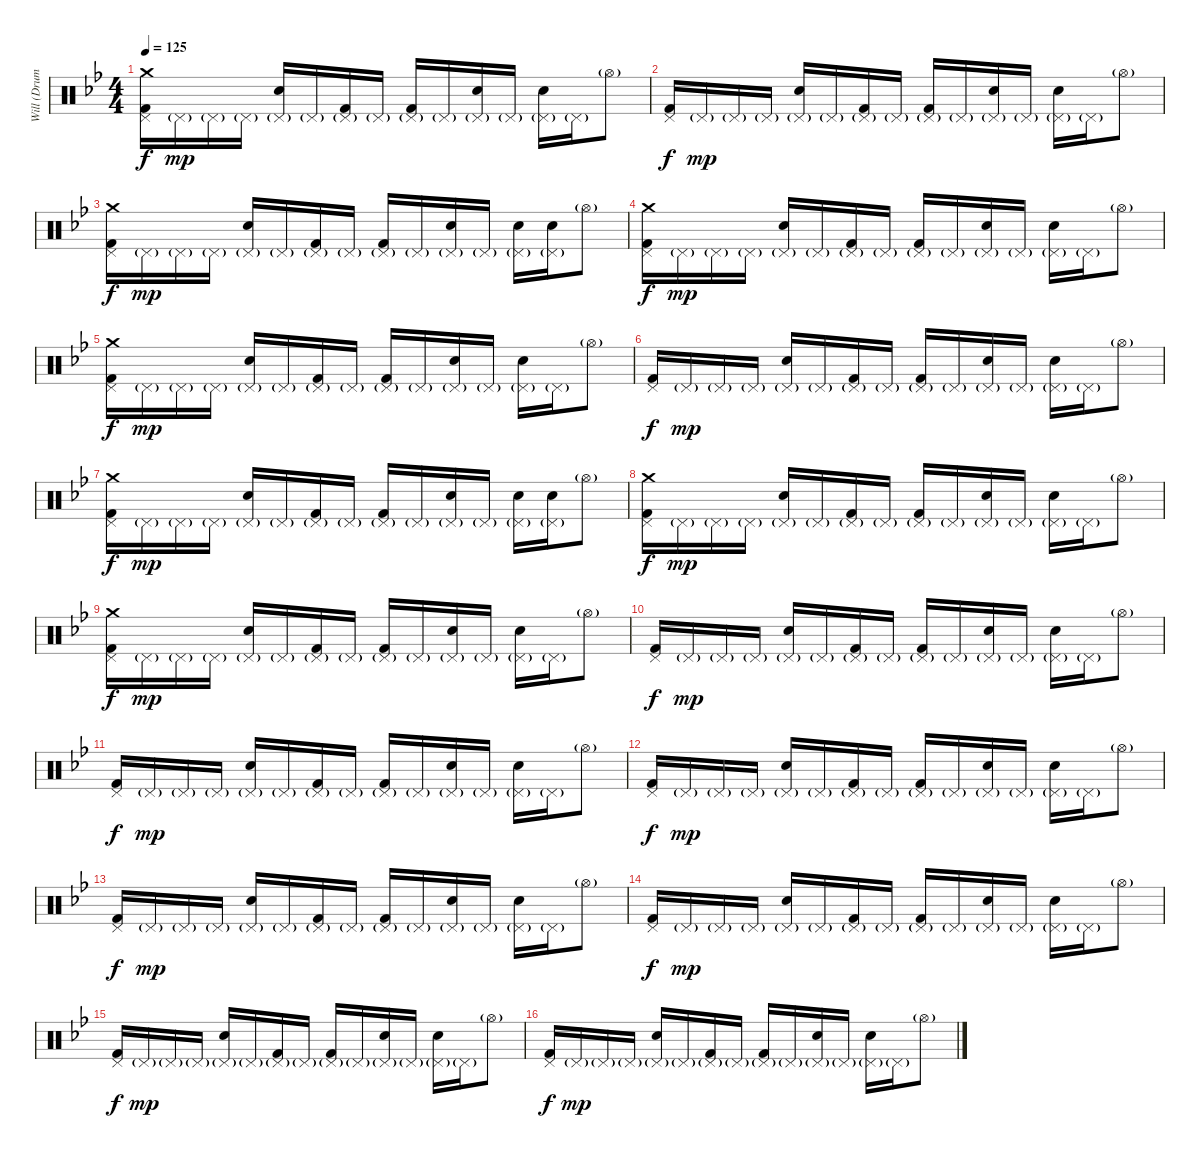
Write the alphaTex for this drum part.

\track ("Will (Drums)" "Will (Drum") {instrument percussion}
\staff {score}
\articulation defaults
\ts (4 4)
\tempo 125
\clef neutral
\ks bb
("Kick (hit) 2" "Pedal Hi-Hat (hit)" "Crash medium (hit)").16{dy f} "Pedal Hi-Hat (hit)"{g}.16{dy mp} "Pedal Hi-Hat (hit)"{g}.16 "Pedal Hi-Hat (hit)"{g}.16 ("Snare (hit) 2" "Pedal Hi-Hat (hit)"{g}).16 "Pedal Hi-Hat (hit)"{g}.16 ("Kick (hit) 2" "Pedal Hi-Hat (hit)"{g}).16 "Pedal Hi-Hat (hit)"{g}.16 ("Kick (hit) 2" "Pedal Hi-Hat (hit)"{g}).16 "Pedal Hi-Hat (hit)"{g}.16 ("Snare (hit) 2" "Pedal Hi-Hat (hit)"{g}).16 "Pedal Hi-Hat (hit)"{g}.16 ("Snare (hit) 2" "Pedal Hi-Hat (hit)"{g}).16 "Pedal Hi-Hat (hit)"{g}.16 "Hi-Hat (open)"{g}.8 |
("Kick (hit) 2" "Pedal Hi-Hat (hit)").16{dy f} "Pedal Hi-Hat (hit)"{g}.16{dy mp} "Pedal Hi-Hat (hit)"{g}.16 "Pedal Hi-Hat (hit)"{g}.16 ("Snare (hit) 2" "Pedal Hi-Hat (hit)"{g}).16 "Pedal Hi-Hat (hit)"{g}.16 ("Kick (hit) 2" "Pedal Hi-Hat (hit)"{g}).16 "Pedal Hi-Hat (hit)"{g}.16 ("Kick (hit) 2" "Pedal Hi-Hat (hit)"{g}).16 "Pedal Hi-Hat (hit)"{g}.16 ("Snare (hit) 2" "Pedal Hi-Hat (hit)"{g}).16 "Pedal Hi-Hat (hit)"{g}.16 ("Snare (hit) 2" "Pedal Hi-Hat (hit)"{g}).16 "Pedal Hi-Hat (hit)"{g}.16 "Hi-Hat (open)"{g}.8 |
("Kick (hit) 2" "Pedal Hi-Hat (hit)" "Crash medium (hit)").16{dy f} "Pedal Hi-Hat (hit)"{g}.16{dy mp} "Pedal Hi-Hat (hit)"{g}.16 "Pedal Hi-Hat (hit)"{g}.16 ("Snare (hit) 2" "Pedal Hi-Hat (hit)"{g}).16 "Pedal Hi-Hat (hit)"{g}.16 ("Kick (hit) 2" "Pedal Hi-Hat (hit)"{g}).16 "Pedal Hi-Hat (hit)"{g}.16 ("Kick (hit) 2" "Pedal Hi-Hat (hit)"{g}).16 "Pedal Hi-Hat (hit)"{g}.16 ("Snare (hit) 2" "Pedal Hi-Hat (hit)"{g}).16 "Pedal Hi-Hat (hit)"{g}.16 ("Snare (hit) 2" "Pedal Hi-Hat (hit)"{g}).16 ("Snare (hit) 2" "Pedal Hi-Hat (hit)"{g}).16 "Hi-Hat (open)"{g}.8 |
("Kick (hit) 2" "Pedal Hi-Hat (hit)" "Crash medium (hit)").16{dy f} "Pedal Hi-Hat (hit)"{g}.16{dy mp} "Pedal Hi-Hat (hit)"{g}.16 "Pedal Hi-Hat (hit)"{g}.16 ("Snare (hit) 2" "Pedal Hi-Hat (hit)"{g}).16 "Pedal Hi-Hat (hit)"{g}.16 ("Kick (hit) 2" "Pedal Hi-Hat (hit)"{g}).16 "Pedal Hi-Hat (hit)"{g}.16 ("Kick (hit) 2" "Pedal Hi-Hat (hit)"{g}).16 "Pedal Hi-Hat (hit)"{g}.16 ("Snare (hit) 2" "Pedal Hi-Hat (hit)"{g}).16 "Pedal Hi-Hat (hit)"{g}.16 ("Snare (hit) 2" "Pedal Hi-Hat (hit)"{g}).16 "Pedal Hi-Hat (hit)"{g}.16 "Hi-Hat (open)"{g}.8 |
("Kick (hit) 2" "Pedal Hi-Hat (hit)" "Crash medium (hit)").16{dy f} "Pedal Hi-Hat (hit)"{g}.16{dy mp} "Pedal Hi-Hat (hit)"{g}.16 "Pedal Hi-Hat (hit)"{g}.16 ("Snare (hit) 2" "Pedal Hi-Hat (hit)"{g}).16 "Pedal Hi-Hat (hit)"{g}.16 ("Kick (hit) 2" "Pedal Hi-Hat (hit)"{g}).16 "Pedal Hi-Hat (hit)"{g}.16 ("Kick (hit) 2" "Pedal Hi-Hat (hit)"{g}).16 "Pedal Hi-Hat (hit)"{g}.16 ("Snare (hit) 2" "Pedal Hi-Hat (hit)"{g}).16 "Pedal Hi-Hat (hit)"{g}.16 ("Snare (hit) 2" "Pedal Hi-Hat (hit)"{g}).16 "Pedal Hi-Hat (hit)"{g}.16 "Hi-Hat (open)"{g}.8 |
("Kick (hit) 2" "Pedal Hi-Hat (hit)").16{dy f} "Pedal Hi-Hat (hit)"{g}.16{dy mp} "Pedal Hi-Hat (hit)"{g}.16 "Pedal Hi-Hat (hit)"{g}.16 ("Snare (hit) 2" "Pedal Hi-Hat (hit)"{g}).16 "Pedal Hi-Hat (hit)"{g}.16 ("Kick (hit) 2" "Pedal Hi-Hat (hit)"{g}).16 "Pedal Hi-Hat (hit)"{g}.16 ("Kick (hit) 2" "Pedal Hi-Hat (hit)"{g}).16 "Pedal Hi-Hat (hit)"{g}.16 ("Snare (hit) 2" "Pedal Hi-Hat (hit)"{g}).16 "Pedal Hi-Hat (hit)"{g}.16 ("Snare (hit) 2" "Pedal Hi-Hat (hit)"{g}).16 "Pedal Hi-Hat (hit)"{g}.16 "Hi-Hat (open)"{g}.8 |
("Kick (hit) 2" "Pedal Hi-Hat (hit)" "Crash medium (hit)").16{dy f} "Pedal Hi-Hat (hit)"{g}.16{dy mp} "Pedal Hi-Hat (hit)"{g}.16 "Pedal Hi-Hat (hit)"{g}.16 ("Snare (hit) 2" "Pedal Hi-Hat (hit)"{g}).16 "Pedal Hi-Hat (hit)"{g}.16 ("Kick (hit) 2" "Pedal Hi-Hat (hit)"{g}).16 "Pedal Hi-Hat (hit)"{g}.16 ("Kick (hit) 2" "Pedal Hi-Hat (hit)"{g}).16 "Pedal Hi-Hat (hit)"{g}.16 ("Snare (hit) 2" "Pedal Hi-Hat (hit)"{g}).16 "Pedal Hi-Hat (hit)"{g}.16 ("Snare (hit) 2" "Pedal Hi-Hat (hit)"{g}).16 ("Snare (hit) 2" "Pedal Hi-Hat (hit)"{g}).16 "Hi-Hat (open)"{g}.8 |
("Kick (hit) 2" "Pedal Hi-Hat (hit)" "Crash medium (hit)").16{dy f} "Pedal Hi-Hat (hit)"{g}.16{dy mp} "Pedal Hi-Hat (hit)"{g}.16 "Pedal Hi-Hat (hit)"{g}.16 ("Snare (hit) 2" "Pedal Hi-Hat (hit)"{g}).16 "Pedal Hi-Hat (hit)"{g}.16 ("Kick (hit) 2" "Pedal Hi-Hat (hit)"{g}).16 "Pedal Hi-Hat (hit)"{g}.16 ("Kick (hit) 2" "Pedal Hi-Hat (hit)"{g}).16 "Pedal Hi-Hat (hit)"{g}.16 ("Snare (hit) 2" "Pedal Hi-Hat (hit)"{g}).16 "Pedal Hi-Hat (hit)"{g}.16 ("Snare (hit) 2" "Pedal Hi-Hat (hit)"{g}).16 "Pedal Hi-Hat (hit)"{g}.16 "Hi-Hat (open)"{g}.8 |
("Kick (hit) 2" "Pedal Hi-Hat (hit)" "Crash medium (hit)").16{dy f} "Pedal Hi-Hat (hit)"{g}.16{dy mp} "Pedal Hi-Hat (hit)"{g}.16 "Pedal Hi-Hat (hit)"{g}.16 ("Snare (hit) 2" "Pedal Hi-Hat (hit)"{g}).16 "Pedal Hi-Hat (hit)"{g}.16 ("Kick (hit) 2" "Pedal Hi-Hat (hit)"{g}).16 "Pedal Hi-Hat (hit)"{g}.16 ("Kick (hit) 2" "Pedal Hi-Hat (hit)"{g}).16 "Pedal Hi-Hat (hit)"{g}.16 ("Snare (hit) 2" "Pedal Hi-Hat (hit)"{g}).16 "Pedal Hi-Hat (hit)"{g}.16 ("Snare (hit) 2" "Pedal Hi-Hat (hit)"{g}).16 "Pedal Hi-Hat (hit)"{g}.16 "Hi-Hat (open)"{g}.8 |
("Kick (hit) 2" "Pedal Hi-Hat (hit)").16{dy f} "Pedal Hi-Hat (hit)"{g}.16{dy mp} "Pedal Hi-Hat (hit)"{g}.16 "Pedal Hi-Hat (hit)"{g}.16 ("Snare (hit) 2" "Pedal Hi-Hat (hit)"{g}).16 "Pedal Hi-Hat (hit)"{g}.16 ("Kick (hit) 2" "Pedal Hi-Hat (hit)"{g}).16 "Pedal Hi-Hat (hit)"{g}.16 ("Kick (hit) 2" "Pedal Hi-Hat (hit)"{g}).16 "Pedal Hi-Hat (hit)"{g}.16 ("Snare (hit) 2" "Pedal Hi-Hat (hit)"{g}).16 "Pedal Hi-Hat (hit)"{g}.16 ("Snare (hit) 2" "Pedal Hi-Hat (hit)"{g}).16 "Pedal Hi-Hat (hit)"{g}.16 "Hi-Hat (open)"{g}.8 |
("Kick (hit) 2" "Pedal Hi-Hat (hit)").16{dy f} "Pedal Hi-Hat (hit)"{g}.16{dy mp} "Pedal Hi-Hat (hit)"{g}.16 "Pedal Hi-Hat (hit)"{g}.16 ("Snare (hit) 2" "Pedal Hi-Hat (hit)"{g}).16 "Pedal Hi-Hat (hit)"{g}.16 ("Kick (hit) 2" "Pedal Hi-Hat (hit)"{g}).16 "Pedal Hi-Hat (hit)"{g}.16 ("Kick (hit) 2" "Pedal Hi-Hat (hit)"{g}).16 "Pedal Hi-Hat (hit)"{g}.16 ("Snare (hit) 2" "Pedal Hi-Hat (hit)"{g}).16 "Pedal Hi-Hat (hit)"{g}.16 ("Snare (hit) 2" "Pedal Hi-Hat (hit)"{g}).16 "Pedal Hi-Hat (hit)"{g}.16 "Hi-Hat (open)"{g}.8 |
("Kick (hit) 2" "Pedal Hi-Hat (hit)").16{dy f} "Pedal Hi-Hat (hit)"{g}.16{dy mp} "Pedal Hi-Hat (hit)"{g}.16 "Pedal Hi-Hat (hit)"{g}.16 ("Snare (hit) 2" "Pedal Hi-Hat (hit)"{g}).16 "Pedal Hi-Hat (hit)"{g}.16 ("Kick (hit) 2" "Pedal Hi-Hat (hit)"{g}).16 "Pedal Hi-Hat (hit)"{g}.16 ("Kick (hit) 2" "Pedal Hi-Hat (hit)"{g}).16 "Pedal Hi-Hat (hit)"{g}.16 ("Snare (hit) 2" "Pedal Hi-Hat (hit)"{g}).16 "Pedal Hi-Hat (hit)"{g}.16 ("Snare (hit) 2" "Pedal Hi-Hat (hit)"{g}).16 "Pedal Hi-Hat (hit)"{g}.16 "Hi-Hat (open)"{g}.8 |
("Kick (hit) 2" "Pedal Hi-Hat (hit)").16{dy f} "Pedal Hi-Hat (hit)"{g}.16{dy mp} "Pedal Hi-Hat (hit)"{g}.16 "Pedal Hi-Hat (hit)"{g}.16 ("Snare (hit) 2" "Pedal Hi-Hat (hit)"{g}).16 "Pedal Hi-Hat (hit)"{g}.16 ("Kick (hit) 2" "Pedal Hi-Hat (hit)"{g}).16 "Pedal Hi-Hat (hit)"{g}.16 ("Kick (hit) 2" "Pedal Hi-Hat (hit)"{g}).16 "Pedal Hi-Hat (hit)"{g}.16 ("Snare (hit) 2" "Pedal Hi-Hat (hit)"{g}).16 "Pedal Hi-Hat (hit)"{g}.16 ("Snare (hit) 2" "Pedal Hi-Hat (hit)"{g}).16 "Pedal Hi-Hat (hit)"{g}.16 "Hi-Hat (open)"{g}.8 |
("Kick (hit) 2" "Pedal Hi-Hat (hit)").16{dy f} "Pedal Hi-Hat (hit)"{g}.16{dy mp} "Pedal Hi-Hat (hit)"{g}.16 "Pedal Hi-Hat (hit)"{g}.16 ("Snare (hit) 2" "Pedal Hi-Hat (hit)"{g}).16 "Pedal Hi-Hat (hit)"{g}.16 ("Kick (hit) 2" "Pedal Hi-Hat (hit)"{g}).16 "Pedal Hi-Hat (hit)"{g}.16 ("Kick (hit) 2" "Pedal Hi-Hat (hit)"{g}).16 "Pedal Hi-Hat (hit)"{g}.16 ("Snare (hit) 2" "Pedal Hi-Hat (hit)"{g}).16 "Pedal Hi-Hat (hit)"{g}.16 ("Snare (hit) 2" "Pedal Hi-Hat (hit)"{g}).16 "Pedal Hi-Hat (hit)"{g}.16 "Hi-Hat (open)"{g}.8 |
("Kick (hit) 2" "Pedal Hi-Hat (hit)").16{dy f} "Pedal Hi-Hat (hit)"{g}.16{dy mp} "Pedal Hi-Hat (hit)"{g}.16 "Pedal Hi-Hat (hit)"{g}.16 ("Snare (hit) 2" "Pedal Hi-Hat (hit)"{g}).16 "Pedal Hi-Hat (hit)"{g}.16 ("Kick (hit) 2" "Pedal Hi-Hat (hit)"{g}).16 "Pedal Hi-Hat (hit)"{g}.16 ("Kick (hit) 2" "Pedal Hi-Hat (hit)"{g}).16 "Pedal Hi-Hat (hit)"{g}.16 ("Snare (hit) 2" "Pedal Hi-Hat (hit)"{g}).16 "Pedal Hi-Hat (hit)"{g}.16 ("Snare (hit) 2" "Pedal Hi-Hat (hit)"{g}).16 "Pedal Hi-Hat (hit)"{g}.16 "Hi-Hat (open)"{g}.8 |
("Kick (hit) 2" "Pedal Hi-Hat (hit)").16{dy f} "Pedal Hi-Hat (hit)"{g}.16{dy mp} "Pedal Hi-Hat (hit)"{g}.16 "Pedal Hi-Hat (hit)"{g}.16 ("Snare (hit) 2" "Pedal Hi-Hat (hit)"{g}).16 "Pedal Hi-Hat (hit)"{g}.16 ("Kick (hit) 2" "Pedal Hi-Hat (hit)"{g}).16 "Pedal Hi-Hat (hit)"{g}.16 ("Kick (hit) 2" "Pedal Hi-Hat (hit)"{g}).16 "Pedal Hi-Hat (hit)"{g}.16 ("Snare (hit) 2" "Pedal Hi-Hat (hit)"{g}).16 "Pedal Hi-Hat (hit)"{g}.16 ("Snare (hit) 2" "Pedal Hi-Hat (hit)"{g}).16 "Pedal Hi-Hat (hit)"{g}.16 "Hi-Hat (open)"{g}.8
